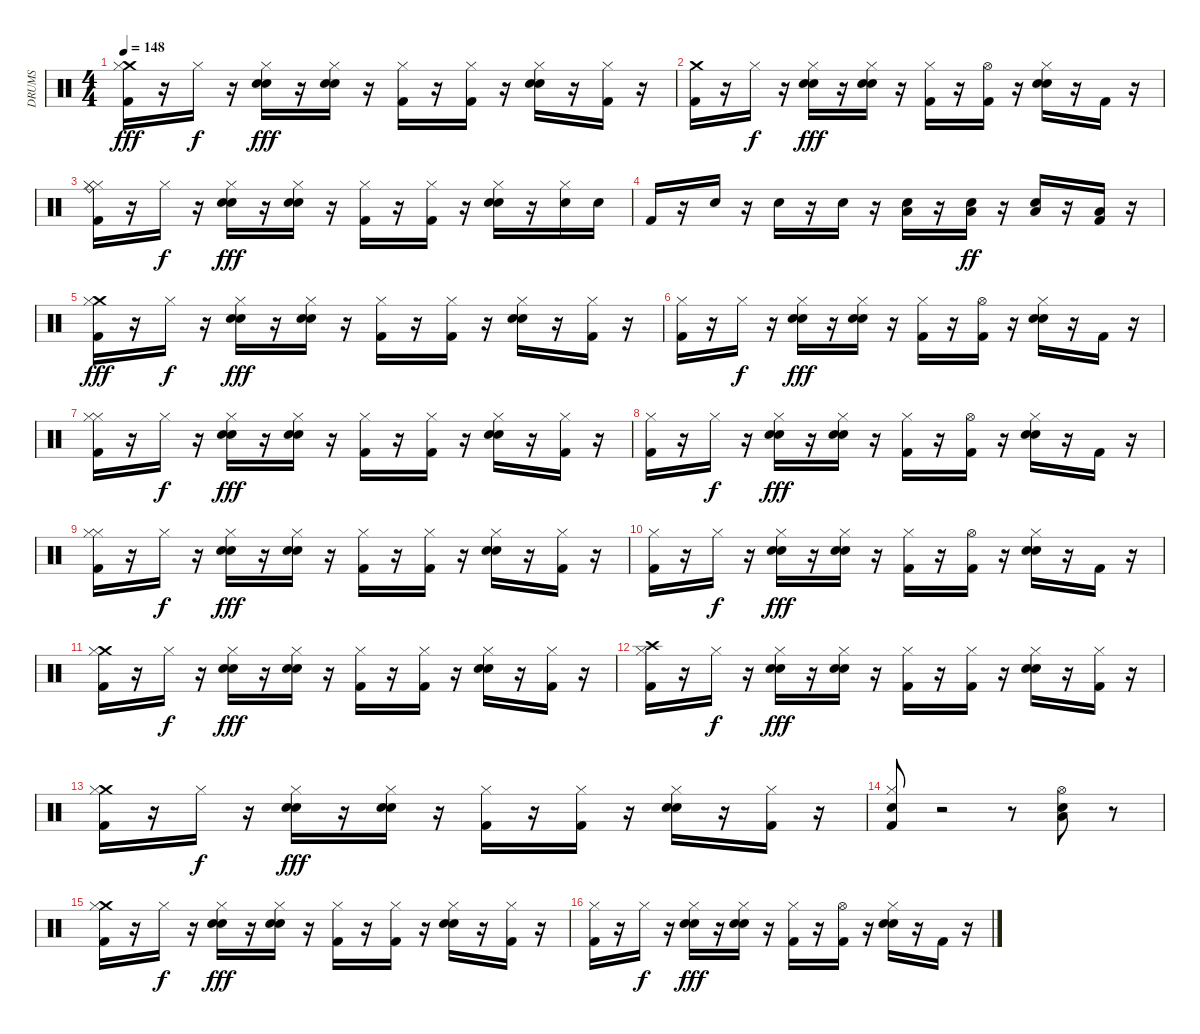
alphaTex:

\track ("DRUMS" "DRUMS") {instrument percussion}
\staff {score}
\articulation defaults
\ts (4 4)
\tempo 148
\clef neutral
\ks c
("Crash medium (hit)" "Kick (hit) 2" "Hi-Hat (closed)").16{dy fff} r.16 "Hi-Hat (closed)".16{dy f} r.16 ("Hi-Hat (closed)" "Hand Clap (hit)" "Snare (hit) 2").16{dy fff} r.16 ("Snare (hit) 2" "Hand Clap (hit)" "Hi-Hat (closed)").16 r.16 ("Hi-Hat (closed)" "Kick (hit) 2").16 r.16 ("Hi-Hat (closed)" "Kick (hit) 2").16 r.16 ("Hi-Hat (closed)" "Hand Clap (hit)" "Snare (hit) 2").16 r.16 ("Hi-Hat (closed)" "Kick (hit) 2").16 r.16 |
("Crash medium (hit)" "Kick (hit) 2").16 r.16 "Hi-Hat (closed)".16{dy f} r.16 ("Hi-Hat (closed)" "Hand Clap (hit)" "Snare (hit) 2").16{dy fff} r.16 ("Hi-Hat (closed)" "Hand Clap (hit)" "Snare (hit) 2").16 r.16 ("Hi-Hat (closed)" "Kick (hit) 2").16 r.16 ("Hi-Hat (open)" "Kick (hit) 2").16 r.16 ("Hand Clap (hit)" "Snare (hit) 2" "Hi-Hat (closed)").16 r.16 "Kick (hit) 2".16 r.16 |
("Ride (bell)" "Hi-Hat (closed)" "Kick (hit) 2" "Hi-Hat (closed)").16 r.16 "Hi-Hat (closed)".16{dy f} r.16 ("Hi-Hat (closed)" "Hand Clap (hit)" "Snare (hit) 2").16{dy fff} r.16 ("Snare (hit) 2" "Hand Clap (hit)" "Hi-Hat (closed)").16 r.16 ("Hi-Hat (closed)" "Kick (hit) 2").16 r.16 ("Hi-Hat (closed)" "Kick (hit) 2").16 r.16 ("Hi-Hat (closed)" "Hand Clap (hit)" "Snare (hit) 2").16 r.16 ("Hi-Hat (closed)" "Snare (hit) 2").16 "Snare (hit) 2".16 |
"Kick (hit) 2".16 r.16 "Snare (hit) 2".16 r.16 "Snare (hit) 2".16 r.16 "Snare (hit) 2".16 r.16 ("Low Floor Tom (hit)" "Snare (hit) 2").16 r.16 ("Snare (hit) 2" "Low Floor Tom (hit)").16{dy ff} r.16 ("Snare (hit) 2" "Low Floor Tom (hit)").16 r.16 ("Kick (hit) 2" "Low Floor Tom (hit)").16 r.16 |
("Crash medium (hit)" "Kick (hit) 2" "Hi-Hat (closed)").16{dy fff} r.16 "Hi-Hat (closed)".16{dy f} r.16 ("Hi-Hat (closed)" "Hand Clap (hit)" "Snare (hit) 2").16{dy fff} r.16 ("Snare (hit) 2" "Hand Clap (hit)" "Hi-Hat (closed)").16 r.16 ("Hi-Hat (closed)" "Kick (hit) 2").16 r.16 ("Hi-Hat (closed)" "Kick (hit) 2").16 r.16 ("Hi-Hat (closed)" "Hand Clap (hit)" "Snare (hit) 2").16 r.16 ("Hi-Hat (closed)" "Kick (hit) 2").16 r.16 |
("Hi-Hat (closed)" "Kick (hit) 2").16 r.16 "Hi-Hat (closed)".16{dy f} r.16 ("Hi-Hat (closed)" "Hand Clap (hit)" "Snare (hit) 2").16{dy fff} r.16 ("Hi-Hat (closed)" "Hand Clap (hit)" "Snare (hit) 2").16 r.16 ("Hi-Hat (closed)" "Kick (hit) 2").16 r.16 ("Hi-Hat (open)" "Kick (hit) 2").16 r.16 ("Hand Clap (hit)" "Snare (hit) 2" "Hi-Hat (closed)").16 r.16 "Kick (hit) 2".16 r.16 |
("Hi-Hat (closed)" "Kick (hit) 2" "Hi-Hat (closed)").16 r.16 "Hi-Hat (closed)".16{dy f} r.16 ("Hi-Hat (closed)" "Hand Clap (hit)" "Snare (hit) 2").16{dy fff} r.16 ("Snare (hit) 2" "Hand Clap (hit)" "Hi-Hat (closed)").16 r.16 ("Hi-Hat (closed)" "Kick (hit) 2").16 r.16 ("Hi-Hat (closed)" "Kick (hit) 2").16 r.16 ("Hi-Hat (closed)" "Hand Clap (hit)" "Snare (hit) 2").16 r.16 ("Hi-Hat (closed)" "Kick (hit) 2").16 r.16 |
("Hi-Hat (closed)" "Kick (hit) 2").16 r.16 "Hi-Hat (closed)".16{dy f} r.16 ("Hi-Hat (closed)" "Hand Clap (hit)" "Snare (hit) 2").16{dy fff} r.16 ("Hi-Hat (closed)" "Hand Clap (hit)" "Snare (hit) 2").16 r.16 ("Hi-Hat (closed)" "Kick (hit) 2").16 r.16 ("Hi-Hat (open)" "Kick (hit) 2").16 r.16 ("Hand Clap (hit)" "Snare (hit) 2" "Hi-Hat (closed)").16 r.16 "Kick (hit) 2".16 r.16 |
("Hi-Hat (closed)" "Kick (hit) 2" "Hi-Hat (closed)").16 r.16 "Hi-Hat (closed)".16{dy f} r.16 ("Hi-Hat (closed)" "Hand Clap (hit)" "Snare (hit) 2").16{dy fff} r.16 ("Snare (hit) 2" "Hand Clap (hit)" "Hi-Hat (closed)").16 r.16 ("Hi-Hat (closed)" "Kick (hit) 2").16 r.16 ("Hi-Hat (closed)" "Kick (hit) 2").16 r.16 ("Hi-Hat (closed)" "Hand Clap (hit)" "Snare (hit) 2").16 r.16 ("Hi-Hat (closed)" "Kick (hit) 2").16 r.16 |
("Hi-Hat (closed)" "Kick (hit) 2").16 r.16 "Hi-Hat (closed)".16{dy f} r.16 ("Hi-Hat (closed)" "Hand Clap (hit)" "Snare (hit) 2").16{dy fff} r.16 ("Hi-Hat (closed)" "Hand Clap (hit)" "Snare (hit) 2").16 r.16 ("Hi-Hat (closed)" "Kick (hit) 2").16 r.16 ("Hi-Hat (open)" "Kick (hit) 2").16 r.16 ("Hand Clap (hit)" "Snare (hit) 2" "Hi-Hat (closed)").16 r.16 "Kick (hit) 2".16 r.16 |
("Crash medium (hit)" "Kick (hit) 2" "Hi-Hat (closed)").16 r.16 "Hi-Hat (closed)".16{dy f} r.16 ("Hi-Hat (closed)" "Hand Clap (hit)" "Snare (hit) 2").16{dy fff} r.16 ("Snare (hit) 2" "Hand Clap (hit)" "Hi-Hat (closed)").16 r.16 ("Hi-Hat (closed)" "Kick (hit) 2").16 r.16 ("Hi-Hat (closed)" "Kick (hit) 2").16 r.16 ("Hi-Hat (closed)" "Hand Clap (hit)" "Snare (hit) 2").16 r.16 ("Hi-Hat (closed)" "Kick (hit) 2").16 r.16 |
("Crash high (hit)" "Kick (hit) 2" "Hi-Hat (closed)").16 r.16 "Hi-Hat (closed)".16{dy f} r.16 ("Hi-Hat (closed)" "Hand Clap (hit)" "Snare (hit) 2").16{dy fff} r.16 ("Snare (hit) 2" "Hand Clap (hit)" "Hi-Hat (closed)").16 r.16 ("Hi-Hat (closed)" "Kick (hit) 2").16 r.16 ("Hi-Hat (closed)" "Kick (hit) 2").16 r.16 ("Hi-Hat (closed)" "Hand Clap (hit)" "Snare (hit) 2").16 r.16 ("Hi-Hat (closed)" "Kick (hit) 2").16 r.16 |
("Crash medium (hit)" "Kick (hit) 2" "Hi-Hat (closed)").16 r.16 "Hi-Hat (closed)".16{dy f} r.16 ("Hi-Hat (closed)" "Hand Clap (hit)" "Snare (hit) 2").16{dy fff} r.16 ("Snare (hit) 2" "Hand Clap (hit)" "Hi-Hat (closed)").16 r.16 ("Hi-Hat (closed)" "Kick (hit) 2").16 r.16 ("Hi-Hat (closed)" "Kick (hit) 2").16 r.16 ("Hi-Hat (closed)" "Hand Clap (hit)" "Snare (hit) 2").16 r.16 ("Hi-Hat (closed)" "Kick (hit) 2").16 r.16 |
("Kick (hit) 2" "Snare (hit) 2" "Hi-Hat (closed)").8 r.2 r.8 ("Low Floor Tom (hit)" "Snare (hit) 2" "Hi-Hat (open)").8 r.8 |
("Crash medium (hit)" "Kick (hit) 2" "Hi-Hat (closed)").16 r.16 "Hi-Hat (closed)".16{dy f} r.16 ("Hi-Hat (closed)" "Hand Clap (hit)" "Snare (hit) 2").16{dy fff} r.16 ("Snare (hit) 2" "Hand Clap (hit)" "Hi-Hat (closed)").16 r.16 ("Hi-Hat (closed)" "Kick (hit) 2").16 r.16 ("Hi-Hat (closed)" "Kick (hit) 2").16 r.16 ("Hi-Hat (closed)" "Hand Clap (hit)" "Snare (hit) 2").16 r.16 ("Hi-Hat (closed)" "Kick (hit) 2").16 r.16 |
("Hi-Hat (closed)" "Kick (hit) 2").16 r.16 "Hi-Hat (closed)".16{dy f} r.16 ("Hi-Hat (closed)" "Hand Clap (hit)" "Snare (hit) 2").16{dy fff} r.16 ("Hi-Hat (closed)" "Hand Clap (hit)" "Snare (hit) 2").16 r.16 ("Hi-Hat (closed)" "Kick (hit) 2").16 r.16 ("Hi-Hat (open)" "Kick (hit) 2").16 r.16 ("Hand Clap (hit)" "Snare (hit) 2" "Hi-Hat (closed)").16 r.16 "Kick (hit) 2".16 r.16
